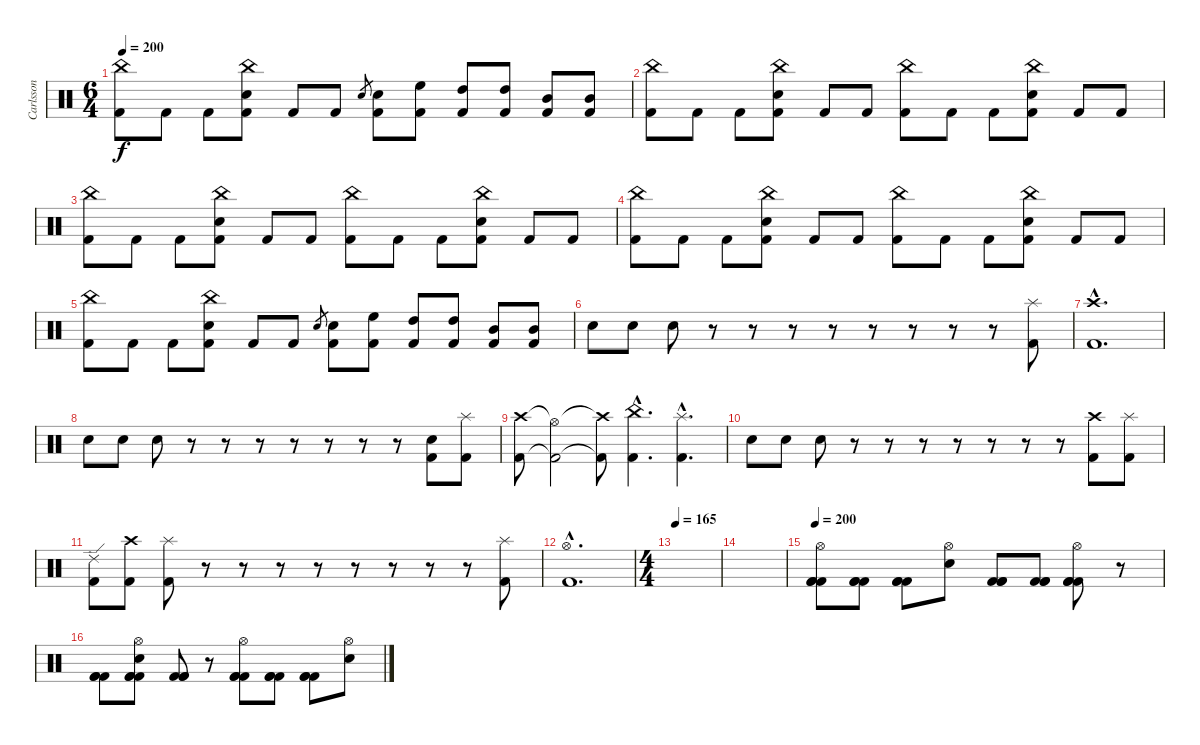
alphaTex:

\track ("Carlsson" "Carlsson") {instrument percussion}
\staff {score}
\articulation defaults
\ts (6 4)
\tempo 200
\clef neutral
\ks c
("China (hit)" "Kick (hit) 2").8{dy f} "Kick (hit) 2".8 "Kick (hit) 2".8 ("China (hit)" "Snare (hit) 2" "Kick (hit) 2").8 "Kick (hit) 2".8 "Kick (hit) 2".8 "Snare (hit) 2".8{gr} ("Snare (hit) 2" "Kick (hit) 2").8 ("High Floor Tom (hit)" "Kick (hit) 2").8 ("High Tom (hit)" "Kick (hit) 2").8 ("High Tom (hit)" "Kick (hit) 2").8 ("Mid Tom (hit)" "Kick (hit) 2").8 ("Mid Tom (hit)" "Kick (hit) 2").8 |
("China (hit)" "Kick (hit) 2").8 "Kick (hit) 2".8 "Kick (hit) 2".8 ("China (hit)" "Snare (hit) 2" "Kick (hit) 2").8 "Kick (hit) 2".8 "Kick (hit) 2".8 ("China (hit)" "Kick (hit) 2").8 "Kick (hit) 2".8 "Kick (hit) 2".8 ("China (hit)" "Snare (hit) 2" "Kick (hit) 2").8 "Kick (hit) 2".8 "Kick (hit) 2".8 |
("China (hit)" "Kick (hit) 2").8 "Kick (hit) 2".8 "Kick (hit) 2".8 ("China (hit)" "Snare (hit) 2" "Kick (hit) 2").8 "Kick (hit) 2".8 "Kick (hit) 2".8 ("China (hit)" "Kick (hit) 2").8 "Kick (hit) 2".8 "Kick (hit) 2".8 ("China (hit)" "Snare (hit) 2" "Kick (hit) 2").8 "Kick (hit) 2".8 "Kick (hit) 2".8 |
("China (hit)" "Kick (hit) 2").8 "Kick (hit) 2".8 "Kick (hit) 2".8 ("China (hit)" "Snare (hit) 2" "Kick (hit) 2").8 "Kick (hit) 2".8 "Kick (hit) 2".8 ("China (hit)" "Kick (hit) 2").8 "Kick (hit) 2".8 "Kick (hit) 2".8 ("China (hit)" "Snare (hit) 2" "Kick (hit) 2").8 "Kick (hit) 2".8 "Kick (hit) 2".8 |
("China (hit)" "Kick (hit) 2").8 "Kick (hit) 2".8 "Kick (hit) 2".8 ("China (hit)" "Snare (hit) 2" "Kick (hit) 2").8 "Kick (hit) 2".8 "Kick (hit) 2".8 "Snare (hit) 2".8{gr} ("Snare (hit) 2" "Kick (hit) 2").8 ("High Floor Tom (hit)" "Kick (hit) 2").8 ("High Tom (hit)" "Kick (hit) 2").8 ("High Tom (hit)" "Kick (hit) 2").8 ("Mid Tom (hit)" "Kick (hit) 2").8 ("Mid Tom (hit)" "Kick (hit) 2").8 |
"Snare (hit) 2".8 "Snare (hit) 2".8 "Snare (hit) 2".8 r.8 r.8 r.8 r.8 r.8 r.8 r.8 r.8 ("Splash (hit)" "Kick (hit) 2").8 |
("Crash high (hit)"{hac} "Kick (hit) 2"{hac}).1{d} |
"Snare (hit) 2".8 "Snare (hit) 2".8 "Snare (hit) 2".8 r.8 r.8 r.8 r.8 r.8 r.8 r.8 ("Snare (hit)" "Kick (hit) 2").8 ("Splash (hit)" "Kick (hit) 2").8 |
("Crash high (hit)" "Kick (hit) 2").8 ("Hi-Hat (open)"{t} "Kick (hit) 2"{t}).2 ("Crash high (hit)"{t} "Kick (hit) 2"{t}).8 ("China (hit)"{hac} "Kick (hit) 2"{hac}).4{d} ("Splash (hit)"{hac} "Kick (hit) 2"{hac}).4{d} |
"Snare (hit) 2".8 "Snare (hit) 2".8 "Snare (hit) 2".8 r.8 r.8 r.8 r.8 r.8 r.8 r.8 ("Crash high (hit)" "Kick (hit) 2").8 ("Splash (hit)" "Kick (hit) 2").8 |
("Ride (edge) 2" "Kick (hit) 2").8 ("Crash high (hit)" "Kick (hit) 2").8 ("Splash (hit)" "Kick (hit) 2").8 r.8 r.8 r.8 r.8 r.8 r.8 r.8 r.8 ("Splash (hit)" "Kick (hit) 2").8 |
("Hi-Hat (open)"{hac} "Kick (hit) 2"{hac}).1{d} |
\ts (4 4)
\tempo 165
|
|
\tempo 200
("Hi-Hat (open)" "Kick (hit) 2" "Kick (hit) 2" "Kick (hit) 2").8 ("Kick (hit) 2" "Kick (hit) 2" "Kick (hit) 2").8 ("Kick (hit) 2" "Kick (hit) 2" "Kick (hit) 2").8 ("Hi-Hat (open)" "Snare (hit) 2").8 ("Kick (hit) 2" "Kick (hit) 2" "Kick (hit) 2").8 ("Kick (hit) 2" "Kick (hit) 2" "Kick (hit) 2").8 ("Hi-Hat (open)" "Kick (hit) 2" "Kick (hit) 2" "Kick (hit) 2").8 r.8 |
("Kick (hit) 2" "Kick (hit) 2" "Kick (hit) 2").8 ("Hi-Hat (open)" "Snare (hit) 2" "Kick (hit) 2" "Kick (hit) 2" "Kick (hit) 2").8 ("Kick (hit) 2" "Kick (hit) 2" "Kick (hit) 2").8 r.8 ("Hi-Hat (open)" "Kick (hit) 2" "Kick (hit) 2" "Kick (hit) 2").8 ("Kick (hit) 2" "Kick (hit) 2" "Kick (hit) 2").8 ("Kick (hit) 2" "Kick (hit) 2" "Kick (hit) 2").8 ("Hi-Hat (open)" "Snare (hit) 2").8
